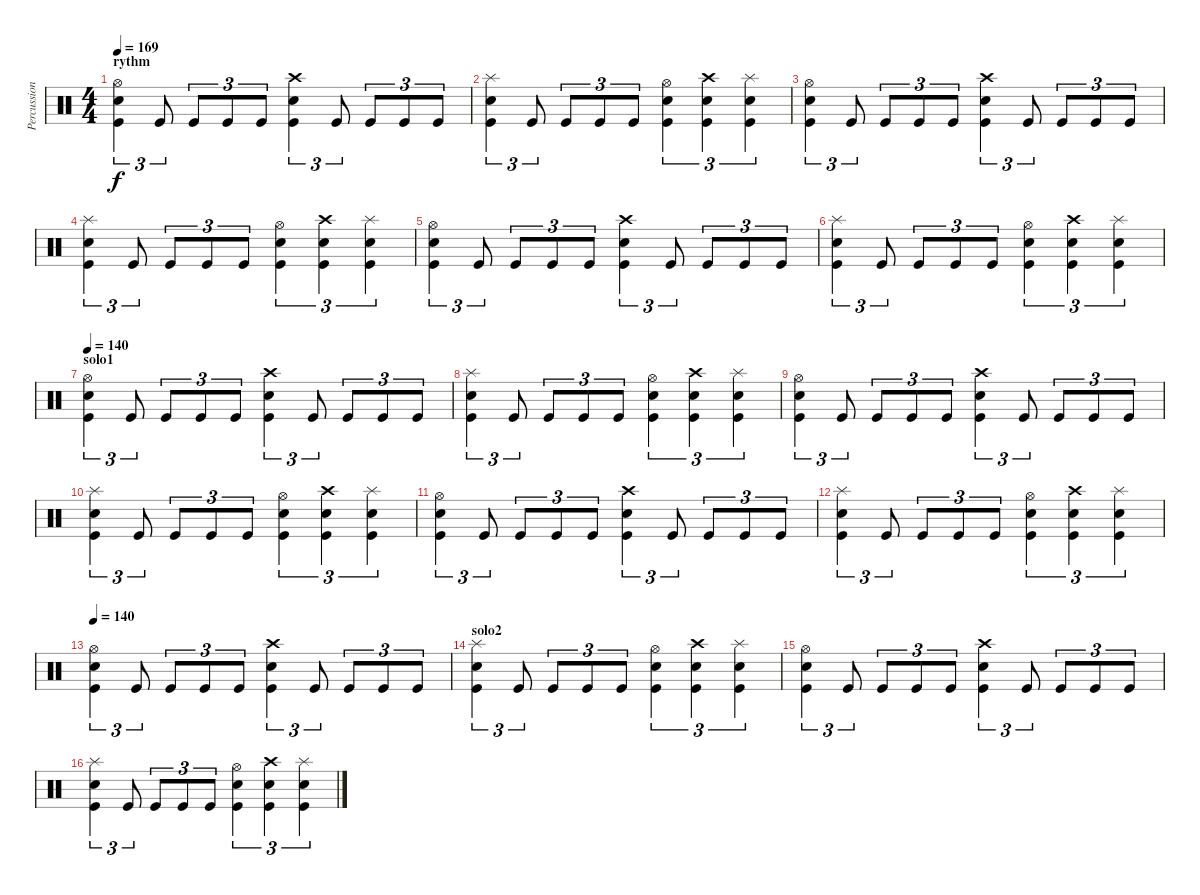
\track ("Percussions" "Percussion") {instrument percussion}
\staff {score}
\articulation defaults
\ts (4 4)
\section ("" "rythm")
\tempo 140
\tempo 169
\clef neutral
\ks c
("Hi-Hat (open)" "Snare (hit) 2" "Kick (hit)").4{tu (3 2) dy f} "Kick (hit)".8{tu (3 2)} "Kick (hit)".8{tu (3 2)} "Kick (hit)".8{tu (3 2)} "Kick (hit)".8{tu (3 2)} ("Crash high (hit)" "Snare (hit) 2" "Kick (hit)").4{tu (3 2)} "Kick (hit)".8{tu (3 2)} "Kick (hit)".8{tu (3 2)} "Kick (hit)".8{tu (3 2)} "Kick (hit)".8{tu (3 2)} |
("Splash (hit)" "Snare (hit) 2" "Kick (hit)").4{tu (3 2)} "Kick (hit)".8{tu (3 2)} "Kick (hit)".8{tu (3 2)} "Kick (hit)".8{tu (3 2)} "Kick (hit)".8{tu (3 2)} ("Hi-Hat (open)" "Kick (hit)" "Snare (hit) 2").4{tu (3 2)} ("Crash high (hit)" "Kick (hit)" "Snare (hit) 2").4{tu (3 2)} ("Splash (hit)" "Kick (hit)" "Snare (hit) 2").4{tu (3 2)} |
("Hi-Hat (open)" "Snare (hit) 2" "Kick (hit)").4{tu (3 2)} "Kick (hit)".8{tu (3 2)} "Kick (hit)".8{tu (3 2)} "Kick (hit)".8{tu (3 2)} "Kick (hit)".8{tu (3 2)} ("Crash high (hit)" "Snare (hit) 2" "Kick (hit)").4{tu (3 2)} "Kick (hit)".8{tu (3 2)} "Kick (hit)".8{tu (3 2)} "Kick (hit)".8{tu (3 2)} "Kick (hit)".8{tu (3 2)} |
("Splash (hit)" "Snare (hit) 2" "Kick (hit)").4{tu (3 2)} "Kick (hit)".8{tu (3 2)} "Kick (hit)".8{tu (3 2)} "Kick (hit)".8{tu (3 2)} "Kick (hit)".8{tu (3 2)} ("Hi-Hat (open)" "Kick (hit)" "Snare (hit) 2").4{tu (3 2)} ("Crash high (hit)" "Kick (hit)" "Snare (hit) 2").4{tu (3 2)} ("Splash (hit)" "Kick (hit)" "Snare (hit) 2").4{tu (3 2)} |
("Hi-Hat (open)" "Snare (hit) 2" "Kick (hit)").4{tu (3 2)} "Kick (hit)".8{tu (3 2)} "Kick (hit)".8{tu (3 2)} "Kick (hit)".8{tu (3 2)} "Kick (hit)".8{tu (3 2)} ("Crash high (hit)" "Snare (hit) 2" "Kick (hit)").4{tu (3 2)} "Kick (hit)".8{tu (3 2)} "Kick (hit)".8{tu (3 2)} "Kick (hit)".8{tu (3 2)} "Kick (hit)".8{tu (3 2)} |
("Splash (hit)" "Snare (hit) 2" "Kick (hit)").4{tu (3 2)} "Kick (hit)".8{tu (3 2)} "Kick (hit)".8{tu (3 2)} "Kick (hit)".8{tu (3 2)} "Kick (hit)".8{tu (3 2)} ("Hi-Hat (open)" "Kick (hit)" "Snare (hit) 2").4{tu (3 2)} ("Crash high (hit)" "Kick (hit)" "Snare (hit) 2").4{tu (3 2)} ("Splash (hit)" "Kick (hit)" "Snare (hit) 2").4{tu (3 2)} |
\section ("" "solo1")
\tempo 140
("Hi-Hat (open)" "Snare (hit) 2" "Kick (hit)").4{tu (3 2)} "Kick (hit)".8{tu (3 2)} "Kick (hit)".8{tu (3 2)} "Kick (hit)".8{tu (3 2)} "Kick (hit)".8{tu (3 2)} ("Crash high (hit)" "Snare (hit) 2" "Kick (hit)").4{tu (3 2)} "Kick (hit)".8{tu (3 2)} "Kick (hit)".8{tu (3 2)} "Kick (hit)".8{tu (3 2)} "Kick (hit)".8{tu (3 2)} |
("Splash (hit)" "Snare (hit) 2" "Kick (hit)").4{tu (3 2)} "Kick (hit)".8{tu (3 2)} "Kick (hit)".8{tu (3 2)} "Kick (hit)".8{tu (3 2)} "Kick (hit)".8{tu (3 2)} ("Hi-Hat (open)" "Kick (hit)" "Snare (hit) 2").4{tu (3 2)} ("Crash high (hit)" "Kick (hit)" "Snare (hit) 2").4{tu (3 2)} ("Splash (hit)" "Kick (hit)" "Snare (hit) 2").4{tu (3 2)} |
("Hi-Hat (open)" "Snare (hit) 2" "Kick (hit)").4{tu (3 2)} "Kick (hit)".8{tu (3 2)} "Kick (hit)".8{tu (3 2)} "Kick (hit)".8{tu (3 2)} "Kick (hit)".8{tu (3 2)} ("Crash high (hit)" "Snare (hit) 2" "Kick (hit)").4{tu (3 2)} "Kick (hit)".8{tu (3 2)} "Kick (hit)".8{tu (3 2)} "Kick (hit)".8{tu (3 2)} "Kick (hit)".8{tu (3 2)} |
("Splash (hit)" "Snare (hit) 2" "Kick (hit)").4{tu (3 2)} "Kick (hit)".8{tu (3 2)} "Kick (hit)".8{tu (3 2)} "Kick (hit)".8{tu (3 2)} "Kick (hit)".8{tu (3 2)} ("Hi-Hat (open)" "Kick (hit)" "Snare (hit) 2").4{tu (3 2)} ("Crash high (hit)" "Kick (hit)" "Snare (hit) 2").4{tu (3 2)} ("Splash (hit)" "Kick (hit)" "Snare (hit) 2").4{tu (3 2)} |
("Hi-Hat (open)" "Snare (hit) 2" "Kick (hit)").4{tu (3 2)} "Kick (hit)".8{tu (3 2)} "Kick (hit)".8{tu (3 2)} "Kick (hit)".8{tu (3 2)} "Kick (hit)".8{tu (3 2)} ("Crash high (hit)" "Snare (hit) 2" "Kick (hit)").4{tu (3 2)} "Kick (hit)".8{tu (3 2)} "Kick (hit)".8{tu (3 2)} "Kick (hit)".8{tu (3 2)} "Kick (hit)".8{tu (3 2)} |
("Splash (hit)" "Snare (hit) 2" "Kick (hit)").4{tu (3 2)} "Kick (hit)".8{tu (3 2)} "Kick (hit)".8{tu (3 2)} "Kick (hit)".8{tu (3 2)} "Kick (hit)".8{tu (3 2)} ("Hi-Hat (open)" "Kick (hit)" "Snare (hit) 2").4{tu (3 2)} ("Crash high (hit)" "Kick (hit)" "Snare (hit) 2").4{tu (3 2)} ("Splash (hit)" "Kick (hit)" "Snare (hit) 2").4{tu (3 2)} |
\tempo 140
("Hi-Hat (open)" "Snare (hit) 2" "Kick (hit)").4{tu (3 2)} "Kick (hit)".8{tu (3 2)} "Kick (hit)".8{tu (3 2)} "Kick (hit)".8{tu (3 2)} "Kick (hit)".8{tu (3 2)} ("Crash high (hit)" "Snare (hit) 2" "Kick (hit)").4{tu (3 2)} "Kick (hit)".8{tu (3 2)} "Kick (hit)".8{tu (3 2)} "Kick (hit)".8{tu (3 2)} "Kick (hit)".8{tu (3 2)} |
\section ("" "solo2")
("Splash (hit)" "Snare (hit) 2" "Kick (hit)").4{tu (3 2)} "Kick (hit)".8{tu (3 2)} "Kick (hit)".8{tu (3 2)} "Kick (hit)".8{tu (3 2)} "Kick (hit)".8{tu (3 2)} ("Hi-Hat (open)" "Kick (hit)" "Snare (hit) 2").4{tu (3 2)} ("Crash high (hit)" "Kick (hit)" "Snare (hit) 2").4{tu (3 2)} ("Splash (hit)" "Kick (hit)" "Snare (hit) 2").4{tu (3 2)} |
("Hi-Hat (open)" "Snare (hit) 2" "Kick (hit)").4{tu (3 2)} "Kick (hit)".8{tu (3 2)} "Kick (hit)".8{tu (3 2)} "Kick (hit)".8{tu (3 2)} "Kick (hit)".8{tu (3 2)} ("Crash high (hit)" "Snare (hit) 2" "Kick (hit)").4{tu (3 2)} "Kick (hit)".8{tu (3 2)} "Kick (hit)".8{tu (3 2)} "Kick (hit)".8{tu (3 2)} "Kick (hit)".8{tu (3 2)} |
("Splash (hit)" "Snare (hit) 2" "Kick (hit)").4{tu (3 2)} "Kick (hit)".8{tu (3 2)} "Kick (hit)".8{tu (3 2)} "Kick (hit)".8{tu (3 2)} "Kick (hit)".8{tu (3 2)} ("Hi-Hat (open)" "Kick (hit)" "Snare (hit) 2").4{tu (3 2)} ("Crash high (hit)" "Kick (hit)" "Snare (hit) 2").4{tu (3 2)} ("Splash (hit)" "Kick (hit)" "Snare (hit) 2").4{tu (3 2)}
